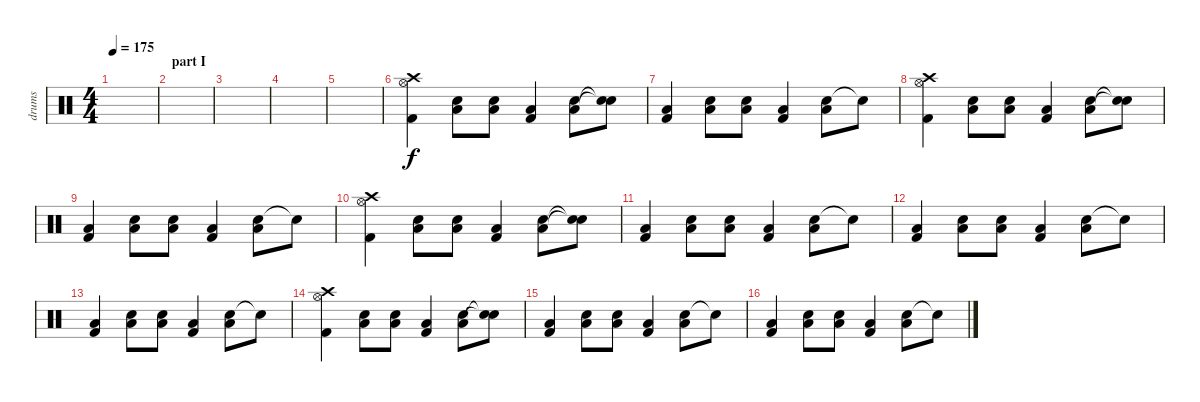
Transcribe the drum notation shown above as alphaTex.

\track ("drums" "drums") {instrument percussion}
\staff {score}
\articulation defaults
\ts (4 4)
\tempo 175
\clef neutral
\ks c
|
\section ("" "part I")
|
|
|
|
("Hi-Hat (open)" "Kick (hit) 2" "Crash high (hit)").4 ("Snare (hit) 2" "Low Floor Tom (hit)").8 ("Snare (hit) 2" "Low Floor Tom (hit)").8 ("Kick (hit) 2" "Low Floor Tom (hit)").4 ("Snare (hit) 2" "Low Floor Tom (hit)").8 ("Snare (hit)"{t} "Snare (hit)"{t}).8 |
("Kick (hit) 2" "Low Floor Tom (hit)").4 ("Snare (hit) 2" "Low Floor Tom (hit)").8 ("Snare (hit) 2" "Low Floor Tom (hit)").8 ("Kick (hit) 2" "Low Floor Tom (hit)").4 ("Snare (hit) 2" "Low Floor Tom (hit)").8 "Snare (hit)"{t}.8 |
("Hi-Hat (open)" "Kick (hit) 2" "Crash high (hit)").4 ("Snare (hit) 2" "Low Floor Tom (hit)").8 ("Snare (hit) 2" "Low Floor Tom (hit)").8 ("Kick (hit) 2" "Low Floor Tom (hit)").4 ("Snare (hit) 2" "Low Floor Tom (hit)").8 ("Snare (hit)"{t} "Snare (hit)"{t}).8 |
("Kick (hit) 2" "Low Floor Tom (hit)").4 ("Snare (hit) 2" "Low Floor Tom (hit)").8 ("Snare (hit) 2" "Low Floor Tom (hit)").8 ("Kick (hit) 2" "Low Floor Tom (hit)").4 ("Snare (hit) 2" "Low Floor Tom (hit)").8 "Snare (hit)"{t}.8 |
("Hi-Hat (open)" "Kick (hit) 2" "Crash high (hit)").4 ("Snare (hit) 2" "Low Floor Tom (hit)").8 ("Snare (hit) 2" "Low Floor Tom (hit)").8 ("Kick (hit) 2" "Low Floor Tom (hit)").4 ("Snare (hit) 2" "Low Floor Tom (hit)").8 ("Snare (hit)"{t} "Snare (hit)"{t}).8 |
("Kick (hit) 2" "Low Floor Tom (hit)").4 ("Snare (hit) 2" "Low Floor Tom (hit)").8 ("Snare (hit) 2" "Low Floor Tom (hit)").8 ("Kick (hit) 2" "Low Floor Tom (hit)").4 ("Snare (hit) 2" "Low Floor Tom (hit)").8 "Snare (hit)"{t}.8 |
("Kick (hit) 2" "Low Floor Tom (hit)").4 ("Snare (hit) 2" "Low Floor Tom (hit)").8 ("Snare (hit) 2" "Low Floor Tom (hit)").8 ("Kick (hit) 2" "Low Floor Tom (hit)").4 ("Snare (hit) 2" "Low Floor Tom (hit)").8 "Snare (hit)"{t}.8 |
("Kick (hit) 2" "Low Floor Tom (hit)").4 ("Snare (hit) 2" "Low Floor Tom (hit)").8 ("Snare (hit) 2" "Low Floor Tom (hit)").8 ("Kick (hit) 2" "Low Floor Tom (hit)").4 ("Snare (hit) 2" "Low Floor Tom (hit)").8 "Snare (hit)"{t}.8 |
("Hi-Hat (open)" "Kick (hit) 2" "Crash high (hit)").4 ("Snare (hit) 2" "Low Floor Tom (hit)").8 ("Snare (hit) 2" "Low Floor Tom (hit)").8 ("Kick (hit) 2" "Low Floor Tom (hit)").4 ("Snare (hit) 2" "Low Floor Tom (hit)").8 ("Snare (hit)"{t} "Snare (hit)"{t}).8 |
("Kick (hit) 2" "Low Floor Tom (hit)").4 ("Snare (hit) 2" "Low Floor Tom (hit)").8 ("Snare (hit) 2" "Low Floor Tom (hit)").8 ("Kick (hit) 2" "Low Floor Tom (hit)").4 ("Snare (hit) 2" "Low Floor Tom (hit)").8 "Snare (hit)"{t}.8 |
("Kick (hit) 2" "Low Floor Tom (hit)").4 ("Snare (hit) 2" "Low Floor Tom (hit)").8 ("Snare (hit) 2" "Low Floor Tom (hit)").8 ("Kick (hit) 2" "Low Floor Tom (hit)").4 ("Snare (hit) 2" "Low Floor Tom (hit)").8 "Snare (hit)"{t}.8
